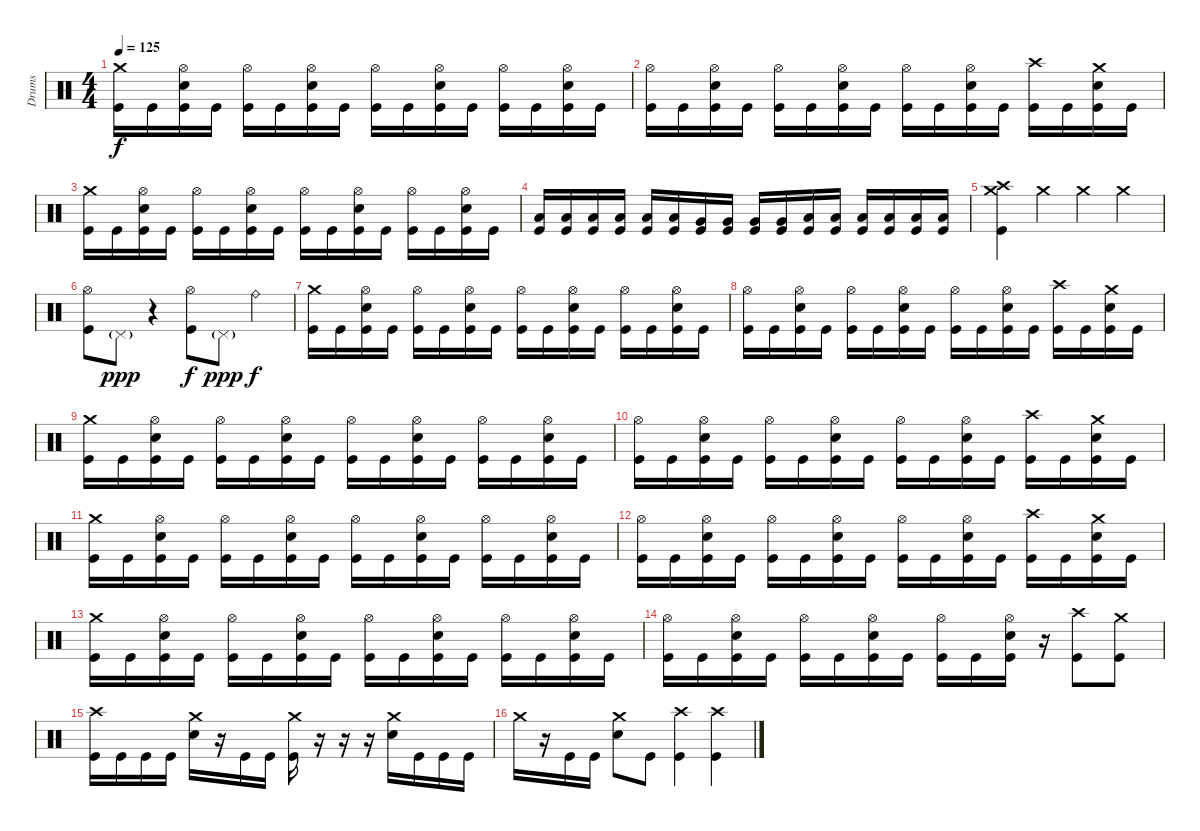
\track ("Drums" "Drums") {instrument percussion}
\staff {score}
\articulation defaults
\ts (4 4)
\tempo 125
\clef neutral
\ks c
("Crash medium (hit)" "Kick (hit)").16{dy f} "Kick (hit)".16 ("Hi-Hat (open)" "Electric Snare (hit)" "Kick (hit)").16 "Kick (hit)".16 ("Hi-Hat (open)" "Kick (hit)").16 "Kick (hit)".16 ("Hi-Hat (open)" "Electric Snare (hit)" "Kick (hit)").16 "Kick (hit)".16 ("Hi-Hat (open)" "Kick (hit)").16 "Kick (hit)".16 ("Hi-Hat (open)" "Electric Snare (hit)" "Kick (hit)").16 "Kick (hit)".16 ("Hi-Hat (open)" "Kick (hit)").16 "Kick (hit)".16 ("Hi-Hat (open)" "Electric Snare (hit)" "Kick (hit)").16 "Kick (hit)".16 |
("Hi-Hat (open)" "Kick (hit)").16 "Kick (hit)".16 ("Hi-Hat (open)" "Electric Snare (hit)" "Kick (hit)").16 "Kick (hit)".16 ("Hi-Hat (open)" "Kick (hit)").16 "Kick (hit)".16 ("Hi-Hat (open)" "Electric Snare (hit)" "Kick (hit)").16 "Kick (hit)".16 ("Hi-Hat (open)" "Kick (hit)").16 "Kick (hit)".16 ("Hi-Hat (open)" "Electric Snare (hit)" "Kick (hit)").16 "Kick (hit)".16 ("Crash high (hit)" "Kick (hit)").16 "Kick (hit)".16 ("Crash medium (hit)" "Electric Snare (hit)" "Kick (hit)").16 "Kick (hit)".16 |
("Crash medium (hit)" "Kick (hit)").16 "Kick (hit)".16 ("Hi-Hat (open)" "Electric Snare (hit)" "Kick (hit)").16 "Kick (hit)".16 ("Hi-Hat (open)" "Kick (hit)").16 "Kick (hit)".16 ("Hi-Hat (open)" "Electric Snare (hit)" "Kick (hit)").16 "Kick (hit)".16 ("Hi-Hat (open)" "Kick (hit)").16 "Kick (hit)".16 ("Hi-Hat (open)" "Electric Snare (hit)" "Kick (hit)").16 "Kick (hit)".16 ("Hi-Hat (open)" "Kick (hit)").16 "Kick (hit)".16 ("Hi-Hat (open)" "Electric Snare (hit)" "Kick (hit)").16 "Kick (hit)".16 |
("Low Tom (hit)" "Kick (hit)").16 ("Low Tom (hit)" "Kick (hit)").16 ("Low Tom (hit)" "Kick (hit)").16 ("Low Tom (hit)" "Kick (hit)").16 ("Low Tom (hit)" "Kick (hit)").16 ("Low Tom (hit)" "Kick (hit)").16 ("Very Low Tom (hit)" "Kick (hit)").16 ("Very Low Tom (hit)" "Kick (hit)").16 ("Very Low Tom (hit)" "Kick (hit)").16 ("Very Low Tom (hit)" "Kick (hit)").16 ("Low Floor Tom (hit)" "Kick (hit)").16 ("Low Floor Tom (hit)" "Kick (hit)").16 ("Low Floor Tom (hit)" "Kick (hit)").16 ("Low Floor Tom (hit)" "Kick (hit)").16 ("Low Floor Tom (hit)" "Kick (hit)").16 ("Low Floor Tom (hit)" "Kick (hit)").16 |
("Crash medium (hit)" "Crash high (hit)" "Kick (hit)").4 "Crash medium (hit)".4 "Crash medium (hit)".4 "Crash medium (hit)".4 |
("Hi-Hat (open)" "Kick (hit)").8 "Pedal Hi-Hat (hit)"{g}.8{dy ppp} r.4 ("Hi-Hat (open)" "Kick (hit)").8{dy f} "Pedal Hi-Hat (hit)"{g}.8{dy ppp} "Ride (bell)".4{dy f} |
("Crash medium (hit)" "Kick (hit)").16 "Kick (hit)".16 ("Hi-Hat (open)" "Electric Snare (hit)" "Kick (hit)").16 "Kick (hit)".16 ("Hi-Hat (open)" "Kick (hit)").16 "Kick (hit)".16 ("Hi-Hat (open)" "Electric Snare (hit)" "Kick (hit)").16 "Kick (hit)".16 ("Hi-Hat (open)" "Kick (hit)").16 "Kick (hit)".16 ("Hi-Hat (open)" "Electric Snare (hit)" "Kick (hit)").16 "Kick (hit)".16 ("Hi-Hat (open)" "Kick (hit)").16 "Kick (hit)".16 ("Hi-Hat (open)" "Electric Snare (hit)" "Kick (hit)").16 "Kick (hit)".16 |
("Hi-Hat (open)" "Kick (hit)").16 "Kick (hit)".16 ("Hi-Hat (open)" "Electric Snare (hit)" "Kick (hit)").16 "Kick (hit)".16 ("Hi-Hat (open)" "Kick (hit)").16 "Kick (hit)".16 ("Hi-Hat (open)" "Electric Snare (hit)" "Kick (hit)").16 "Kick (hit)".16 ("Hi-Hat (open)" "Kick (hit)").16 "Kick (hit)".16 ("Hi-Hat (open)" "Electric Snare (hit)" "Kick (hit)").16 "Kick (hit)".16 ("Crash high (hit)" "Kick (hit)").16 "Kick (hit)".16 ("Crash medium (hit)" "Electric Snare (hit)" "Kick (hit)").16 "Kick (hit)".16 |
("Crash medium (hit)" "Kick (hit)").16 "Kick (hit)".16 ("Hi-Hat (open)" "Electric Snare (hit)" "Kick (hit)").16 "Kick (hit)".16 ("Hi-Hat (open)" "Kick (hit)").16 "Kick (hit)".16 ("Hi-Hat (open)" "Electric Snare (hit)" "Kick (hit)").16 "Kick (hit)".16 ("Hi-Hat (open)" "Kick (hit)").16 "Kick (hit)".16 ("Hi-Hat (open)" "Electric Snare (hit)" "Kick (hit)").16 "Kick (hit)".16 ("Hi-Hat (open)" "Kick (hit)").16 "Kick (hit)".16 ("Hi-Hat (open)" "Electric Snare (hit)" "Kick (hit)").16 "Kick (hit)".16 |
("Hi-Hat (open)" "Kick (hit)").16 "Kick (hit)".16 ("Hi-Hat (open)" "Electric Snare (hit)" "Kick (hit)").16 "Kick (hit)".16 ("Hi-Hat (open)" "Kick (hit)").16 "Kick (hit)".16 ("Hi-Hat (open)" "Electric Snare (hit)" "Kick (hit)").16 "Kick (hit)".16 ("Hi-Hat (open)" "Kick (hit)").16 "Kick (hit)".16 ("Hi-Hat (open)" "Electric Snare (hit)" "Kick (hit)").16 "Kick (hit)".16 ("Crash high (hit)" "Kick (hit)").16 "Kick (hit)".16 ("Crash medium (hit)" "Electric Snare (hit)" "Kick (hit)").16 "Kick (hit)".16 |
("Crash medium (hit)" "Kick (hit)").16 "Kick (hit)".16 ("Hi-Hat (open)" "Electric Snare (hit)" "Kick (hit)").16 "Kick (hit)".16 ("Hi-Hat (open)" "Kick (hit)").16 "Kick (hit)".16 ("Hi-Hat (open)" "Electric Snare (hit)" "Kick (hit)").16 "Kick (hit)".16 ("Hi-Hat (open)" "Kick (hit)").16 "Kick (hit)".16 ("Hi-Hat (open)" "Electric Snare (hit)" "Kick (hit)").16 "Kick (hit)".16 ("Hi-Hat (open)" "Kick (hit)").16 "Kick (hit)".16 ("Hi-Hat (open)" "Electric Snare (hit)" "Kick (hit)").16 "Kick (hit)".16 |
("Hi-Hat (open)" "Kick (hit)").16 "Kick (hit)".16 ("Hi-Hat (open)" "Electric Snare (hit)" "Kick (hit)").16 "Kick (hit)".16 ("Hi-Hat (open)" "Kick (hit)").16 "Kick (hit)".16 ("Hi-Hat (open)" "Electric Snare (hit)" "Kick (hit)").16 "Kick (hit)".16 ("Hi-Hat (open)" "Kick (hit)").16 "Kick (hit)".16 ("Hi-Hat (open)" "Electric Snare (hit)" "Kick (hit)").16 "Kick (hit)".16 ("Crash high (hit)" "Kick (hit)").16 "Kick (hit)".16 ("Crash medium (hit)" "Electric Snare (hit)" "Kick (hit)").16 "Kick (hit)".16 |
("Crash medium (hit)" "Kick (hit)").16 "Kick (hit)".16 ("Hi-Hat (open)" "Electric Snare (hit)" "Kick (hit)").16 "Kick (hit)".16 ("Hi-Hat (open)" "Kick (hit)").16 "Kick (hit)".16 ("Hi-Hat (open)" "Electric Snare (hit)" "Kick (hit)").16 "Kick (hit)".16 ("Hi-Hat (open)" "Kick (hit)").16 "Kick (hit)".16 ("Hi-Hat (open)" "Electric Snare (hit)" "Kick (hit)").16 "Kick (hit)".16 ("Hi-Hat (open)" "Kick (hit)").16 "Kick (hit)".16 ("Hi-Hat (open)" "Electric Snare (hit)" "Kick (hit)").16 "Kick (hit)".16 |
("Hi-Hat (open)" "Kick (hit)").16 "Kick (hit)".16 ("Hi-Hat (open)" "Electric Snare (hit)" "Kick (hit)").16 "Kick (hit)".16 ("Hi-Hat (open)" "Kick (hit)").16 "Kick (hit)".16 ("Hi-Hat (open)" "Electric Snare (hit)" "Kick (hit)").16 "Kick (hit)".16 ("Hi-Hat (open)" "Kick (hit)").16 "Kick (hit)".16 ("Hi-Hat (open)" "Electric Snare (hit)" "Kick (hit)").16 r.16 ("Crash high (hit)" "Kick (hit)").8 ("Crash medium (hit)" "Kick (hit)").8 |
("Crash high (hit)" "Kick (hit)").16 "Kick (hit)".16 "Kick (hit)".16 "Kick (hit)".16 ("Crash medium (hit)" "Electric Snare (hit)").16 r.16 "Kick (hit)".16 "Kick (hit)".16 ("Crash medium (hit)" "Kick (hit)").16 r.16 r.16 r.16 ("Crash medium (hit)" "Electric Snare (hit)").16 "Kick (hit)".16 "Kick (hit)".16 "Kick (hit)".16 |
"Crash medium (hit)".16 r.16 "Kick (hit)".16 "Kick (hit)".16 ("Crash medium (hit)" "Electric Snare (hit)").8 "Kick (hit)".8 ("Crash high (hit)" "Kick (hit)").4 ("Crash high (hit)" "Kick (hit)").4
